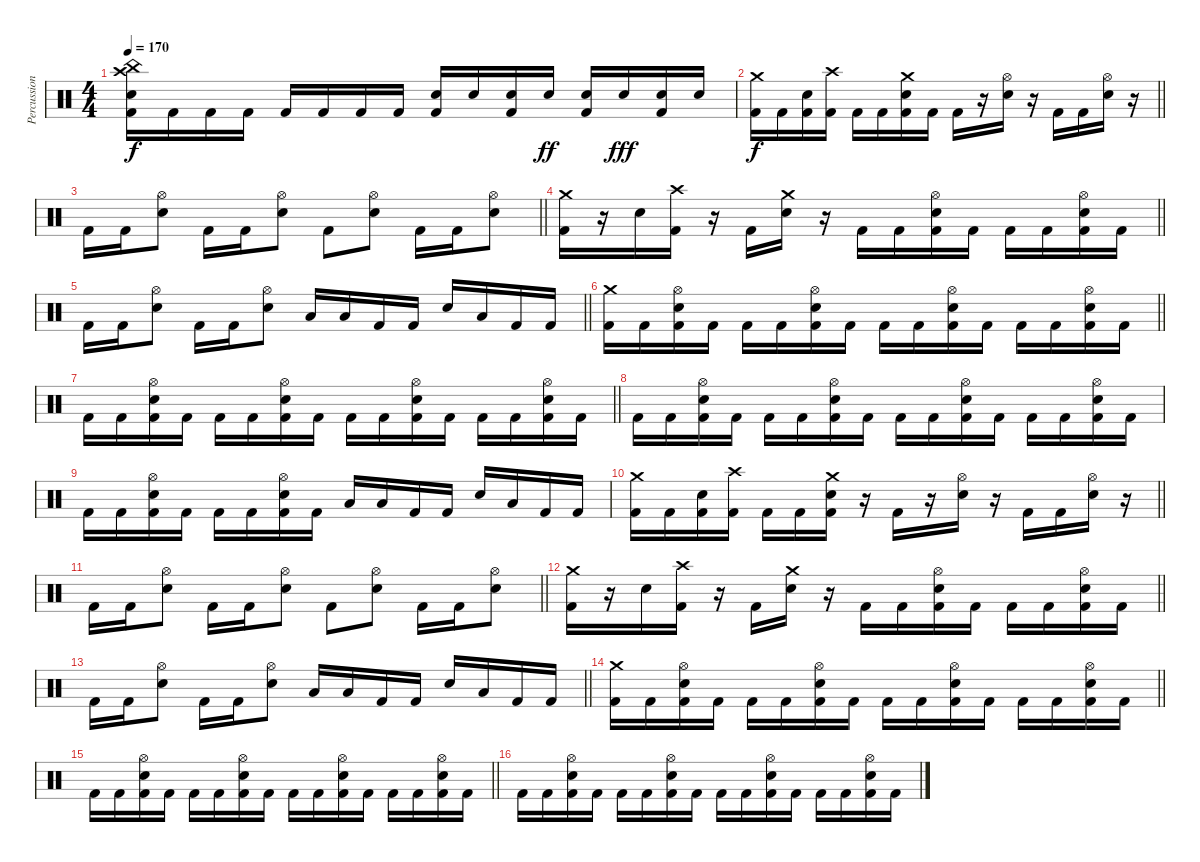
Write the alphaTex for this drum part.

\track ("Percussions" "Percussion") {instrument percussion}
\staff {score}
\articulation defaults
\ts (4 4)
\tempo 170
\clef neutral
\ks c
("China (hit)" "Crash high (hit)" "Electric Snare (hit)" "Kick (hit) 2").16{dy f} "Kick (hit) 2".16 "Kick (hit) 2".16 "Kick (hit) 2".16 "Kick (hit) 2".16 "Kick (hit) 2".16 "Kick (hit) 2".16 "Kick (hit) 2".16 ("Electric Snare (hit)" "Kick (hit) 2").16 "Electric Snare (hit)".16 ("Electric Snare (hit)" "Kick (hit) 2").16 "Electric Snare (hit)".16{dy ff} ("Electric Snare (hit)" "Kick (hit) 2").16 "Electric Snare (hit)".16{dy fff} ("Electric Snare (hit)" "Kick (hit) 2").16 "Electric Snare (hit)".16 |
\barLineRight lightlight
("Crash medium (hit)" "Kick (hit) 2").16{dy f} "Kick (hit) 2".16 ("Electric Snare (hit)" "Kick (hit) 2").16 ("Crash high (hit)" "Kick (hit) 2").16 "Kick (hit) 2".16 "Kick (hit) 2".16 ("Crash medium (hit)" "Electric Snare (hit)" "Kick (hit) 2").16 "Kick (hit) 2".16 "Kick (hit) 2".16 r.16 ("Hi-Hat (open)" "Electric Snare (hit)").16 r.16 "Kick (hit) 2".16 "Kick (hit) 2".16 ("Hi-Hat (open)" "Electric Snare (hit)").16 r.16 |
\barLineRight lightlight "Kick (hit) 2".16 "Kick (hit) 2".16
("Hi-Hat (open)" "Electric Snare (hit)").8 "Kick (hit) 2".16 "Kick (hit) 2".16 ("Hi-Hat (open)" "Electric Snare (hit)").8 "Kick (hit) 2".8 ("Hi-Hat (open)" "Electric Snare (hit)").8 "Kick (hit) 2".16 "Kick (hit) 2".16 ("Hi-Hat (open)" "Electric Snare (hit)").8 |
\barLineRight lightlight
("Crash medium (hit)" "Kick (hit) 2").16 r.16 "Electric Snare (hit)".16 ("Crash high (hit)" "Kick (hit) 2").16 r.16 "Kick (hit) 2".16 ("Crash medium (hit)" "Electric Snare (hit)").16 r.16 "Kick (hit) 2".16 "Kick (hit) 2".16 ("Hi-Hat (open)" "Electric Snare (hit)" "Kick (hit) 2").16 "Kick (hit) 2".16 "Kick (hit) 2".16 "Kick (hit) 2".16 ("Hi-Hat (open)" "Electric Snare (hit)" "Kick (hit) 2").16 "Kick (hit) 2".16 |
\barLineRight lightlight "Kick (hit) 2".16 "Kick (hit) 2".16
("Hi-Hat (open)" "Electric Snare (hit)").8 "Kick (hit) 2".16 "Kick (hit) 2".16 ("Hi-Hat (open)" "Electric Snare (hit)").8 "Low Tom (hit)".16 "Low Tom (hit)".16 "Kick (hit) 2".16 "Kick (hit) 2".16 "Electric Snare (hit)".16 "Low Tom (hit)".16 "Kick (hit) 2".16 "Kick (hit) 2".16 |
\barLineRight lightlight
("Crash medium (hit)" "Kick (hit) 2").16 "Kick (hit) 2".16 ("Hi-Hat (open)" "Electric Snare (hit)" "Kick (hit) 2").16 "Kick (hit) 2".16 "Kick (hit) 2".16 "Kick (hit) 2".16 ("Hi-Hat (open)" "Electric Snare (hit)" "Kick (hit) 2").16 "Kick (hit) 2".16 "Kick (hit) 2".16 "Kick (hit) 2".16 ("Hi-Hat (open)" "Electric Snare (hit)" "Kick (hit) 2").16 "Kick (hit) 2".16 "Kick (hit) 2".16 "Kick (hit) 2".16 ("Hi-Hat (open)" "Electric Snare (hit)" "Kick (hit) 2").16 "Kick (hit) 2".16 |
\barLineRight lightlight "Kick (hit) 2".16 "Kick (hit) 2".16
("Hi-Hat (open)" "Electric Snare (hit)" "Kick (hit) 2").16 "Kick (hit) 2".16 "Kick (hit) 2".16 "Kick (hit) 2".16 ("Hi-Hat (open)" "Electric Snare (hit)" "Kick (hit) 2").16 "Kick (hit) 2".16 "Kick (hit) 2".16 "Kick (hit) 2".16 ("Hi-Hat (open)" "Electric Snare (hit)" "Kick (hit) 2").16 "Kick (hit) 2".16 "Kick (hit) 2".16 "Kick (hit) 2".16 ("Hi-Hat (open)" "Electric Snare (hit)" "Kick (hit) 2").16 "Kick (hit) 2".16 |
"Kick (hit) 2".16 "Kick (hit) 2".16 ("Hi-Hat (open)" "Electric Snare (hit)" "Kick (hit) 2").16 "Kick (hit) 2".16 "Kick (hit) 2".16 "Kick (hit) 2".16 ("Hi-Hat (open)" "Electric Snare (hit)" "Kick (hit) 2").16 "Kick (hit) 2".16 "Kick (hit) 2".16 "Kick (hit) 2".16 ("Hi-Hat (open)" "Electric Snare (hit)" "Kick (hit) 2").16 "Kick (hit) 2".16 "Kick (hit) 2".16 "Kick (hit) 2".16 ("Hi-Hat (open)" "Electric Snare (hit)" "Kick (hit) 2").16 "Kick (hit) 2".16 |
"Kick (hit) 2".16 "Kick (hit) 2".16 ("Hi-Hat (open)" "Electric Snare (hit)" "Kick (hit) 2").16 "Kick (hit) 2".16 "Kick (hit) 2".16 "Kick (hit) 2".16 ("Hi-Hat (open)" "Electric Snare (hit)" "Kick (hit) 2").16 "Kick (hit) 2".16 "Low Tom (hit)".16 "Low Tom (hit)".16 "Kick (hit) 2".16 "Kick (hit) 2".16 "Electric Snare (hit)".16 "Low Tom (hit)".16 "Kick (hit) 2".16 "Kick (hit) 2".16 |
\barLineRight lightlight
("Crash medium (hit)" "Kick (hit) 2").16 "Kick (hit) 2".16 ("Electric Snare (hit)" "Kick (hit) 2").16 ("Crash high (hit)" "Kick (hit) 2").16 "Kick (hit) 2".16 "Kick (hit) 2".16 ("Crash medium (hit)" "Electric Snare (hit)" "Kick (hit) 2").16 r.16 "Kick (hit) 2".16 r.16 ("Hi-Hat (open)" "Electric Snare (hit)").16 r.16 "Kick (hit) 2".16 "Kick (hit) 2".16 ("Hi-Hat (open)" "Electric Snare (hit)").16 r.16 |
\barLineRight lightlight "Kick (hit) 2".16 "Kick (hit) 2".16
("Hi-Hat (open)" "Electric Snare (hit)").8 "Kick (hit) 2".16 "Kick (hit) 2".16 ("Hi-Hat (open)" "Electric Snare (hit)").8 "Kick (hit) 2".8 ("Hi-Hat (open)" "Electric Snare (hit)").8 "Kick (hit) 2".16 "Kick (hit) 2".16 ("Hi-Hat (open)" "Electric Snare (hit)").8 |
\barLineRight lightlight
("Crash medium (hit)" "Kick (hit) 2").16 r.16 "Electric Snare (hit)".16 ("Crash high (hit)" "Kick (hit) 2").16 r.16 "Kick (hit) 2".16 ("Crash medium (hit)" "Electric Snare (hit)").16 r.16 "Kick (hit) 2".16 "Kick (hit) 2".16 ("Hi-Hat (open)" "Electric Snare (hit)" "Kick (hit) 2").16 "Kick (hit) 2".16 "Kick (hit) 2".16 "Kick (hit) 2".16 ("Hi-Hat (open)" "Electric Snare (hit)" "Kick (hit) 2").16 "Kick (hit) 2".16 |
\barLineRight lightlight "Kick (hit) 2".16 "Kick (hit) 2".16
("Hi-Hat (open)" "Electric Snare (hit)").8 "Kick (hit) 2".16 "Kick (hit) 2".16 ("Hi-Hat (open)" "Electric Snare (hit)").8 "Low Tom (hit)".16 "Low Tom (hit)".16 "Kick (hit) 2".16 "Kick (hit) 2".16 "Electric Snare (hit)".16 "Low Tom (hit)".16 "Kick (hit) 2".16 "Kick (hit) 2".16 |
\barLineRight lightlight
("Crash medium (hit)" "Kick (hit) 2").16 "Kick (hit) 2".16 ("Hi-Hat (open)" "Electric Snare (hit)" "Kick (hit) 2").16 "Kick (hit) 2".16 "Kick (hit) 2".16 "Kick (hit) 2".16 ("Hi-Hat (open)" "Electric Snare (hit)" "Kick (hit) 2").16 "Kick (hit) 2".16 "Kick (hit) 2".16 "Kick (hit) 2".16 ("Hi-Hat (open)" "Electric Snare (hit)" "Kick (hit) 2").16 "Kick (hit) 2".16 "Kick (hit) 2".16 "Kick (hit) 2".16 ("Hi-Hat (open)" "Electric Snare (hit)" "Kick (hit) 2").16 "Kick (hit) 2".16 |
\barLineRight lightlight "Kick (hit) 2".16 "Kick (hit) 2".16
("Hi-Hat (open)" "Electric Snare (hit)" "Kick (hit) 2").16 "Kick (hit) 2".16 "Kick (hit) 2".16 "Kick (hit) 2".16 ("Hi-Hat (open)" "Electric Snare (hit)" "Kick (hit) 2").16 "Kick (hit) 2".16 "Kick (hit) 2".16 "Kick (hit) 2".16 ("Hi-Hat (open)" "Electric Snare (hit)" "Kick (hit) 2").16 "Kick (hit) 2".16 "Kick (hit) 2".16 "Kick (hit) 2".16 ("Hi-Hat (open)" "Electric Snare (hit)" "Kick (hit) 2").16 "Kick (hit) 2".16 |
"Kick (hit) 2".16 "Kick (hit) 2".16 ("Hi-Hat (open)" "Electric Snare (hit)" "Kick (hit) 2").16 "Kick (hit) 2".16 "Kick (hit) 2".16 "Kick (hit) 2".16 ("Hi-Hat (open)" "Electric Snare (hit)" "Kick (hit) 2").16 "Kick (hit) 2".16 "Kick (hit) 2".16 "Kick (hit) 2".16 ("Hi-Hat (open)" "Electric Snare (hit)" "Kick (hit) 2").16 "Kick (hit) 2".16 "Kick (hit) 2".16 "Kick (hit) 2".16 ("Hi-Hat (open)" "Electric Snare (hit)" "Kick (hit) 2").16 "Kick (hit) 2".16
